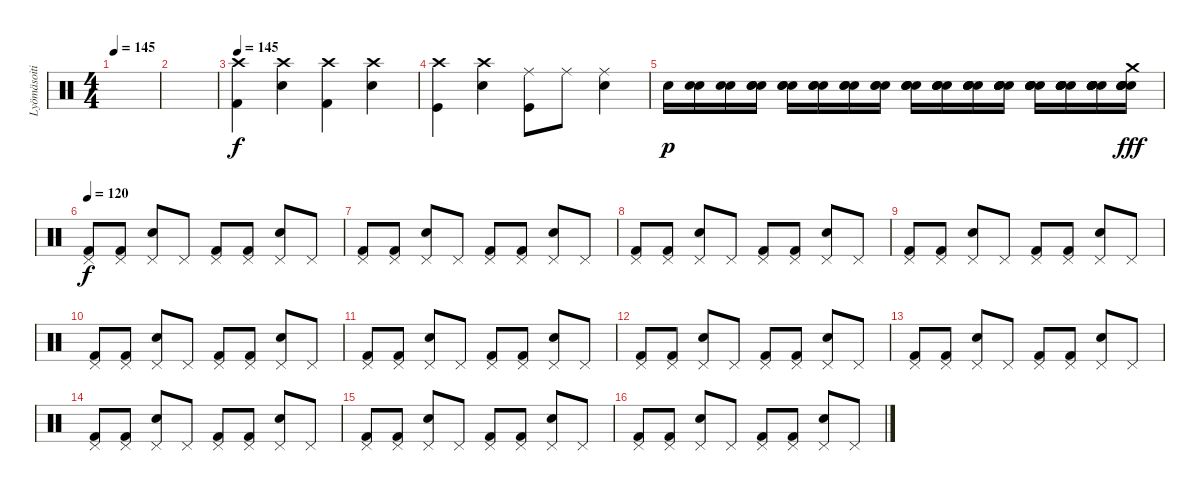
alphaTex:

\track ("Lyömäsoitin" "Lyömäsoiti") {instrument percussion}
\staff {score}
\articulation defaults
\ts (4 4)
\tempo 145
\clef neutral
\ks c
|
|
\tempo 145
("Crash high (hit)" "Kick (hit) 2").4 ("Crash high (hit)" "Snare (hit) 2").4 ("Crash high (hit)" "Kick (hit) 2").4 ("Crash high (hit)" "Snare (hit) 2").4 |
("Crash high (hit)" "Kick (hit)").4 ("Crash high (hit)" "Snare (hit) 2").4 ("Ride (middle)" "Kick (hit)").8 "Ride (middle)".8 ("Ride (middle)" "Snare (hit) 2").4 |
"Snare (hit) 2".16{dy p} ("Snare (hit) 2" "Snare (hit) 2").16 ("Snare (hit) 2" "Snare (hit) 2").16 ("Snare (hit) 2" "Snare (hit) 2" "Snare (hit) 2").16 ("Snare (hit) 2" "Snare (hit) 2" "Snare (hit) 2").16 ("Snare (hit) 2" "Snare (hit) 2" "Snare (hit) 2").16 ("Snare (hit) 2" "Snare (hit) 2" "Snare (hit) 2").16 ("Snare (hit) 2" "Snare (hit) 2" "Snare (hit) 2").16 ("Snare (hit) 2" "Snare (hit) 2" "Snare (hit) 2" "Snare (hit) 2").16 ("Snare (hit) 2" "Snare (hit) 2" "Snare (hit) 2" "Snare (hit) 2").16 ("Snare (hit) 2" "Snare (hit) 2" "Snare (hit) 2" "Snare (hit) 2" "Snare (hit) 2").16 ("Snare (hit) 2" "Snare (hit) 2" "Snare (hit) 2" "Snare (hit) 2" "Snare (hit) 2").16 ("Snare (hit) 2" "Snare (hit) 2" "Snare (hit) 2" "Snare (hit) 2" "Snare (hit) 2").16 ("Snare (hit) 2" "Snare (hit) 2" "Snare (hit) 2" "Snare (hit) 2" "Snare (hit) 2" "Snare (hit) 2").16 ("Snare (hit) 2" "Snare (hit) 2" "Snare (hit) 2" "Snare (hit) 2" "Snare (hit) 2" "Snare (hit) 2").16 ("Snare (hit) 2" "Snare (hit) 2" "Snare (hit) 2" "Snare (hit) 2" "Snare (hit) 2" "Crash medium (hit)").16{dy fff} |
\tempo 120
("Pedal Hi-Hat (hit)" "Kick (hit) 2").8{dy f} ("Pedal Hi-Hat (hit)" "Kick (hit) 2").8 ("Pedal Hi-Hat (hit)" "Snare (hit) 2").8 "Pedal Hi-Hat (hit)".8 ("Pedal Hi-Hat (hit)" "Kick (hit) 2").8 ("Pedal Hi-Hat (hit)" "Kick (hit) 2").8 ("Pedal Hi-Hat (hit)" "Snare (hit) 2").8 "Pedal Hi-Hat (hit)".8 |
("Pedal Hi-Hat (hit)" "Kick (hit) 2").8 ("Pedal Hi-Hat (hit)" "Kick (hit) 2").8 ("Pedal Hi-Hat (hit)" "Snare (hit) 2").8 "Pedal Hi-Hat (hit)".8 ("Pedal Hi-Hat (hit)" "Kick (hit) 2").8 ("Pedal Hi-Hat (hit)" "Kick (hit) 2").8 ("Pedal Hi-Hat (hit)" "Snare (hit) 2").8 "Pedal Hi-Hat (hit)".8 |
("Pedal Hi-Hat (hit)" "Kick (hit) 2").8 ("Pedal Hi-Hat (hit)" "Kick (hit) 2").8 ("Pedal Hi-Hat (hit)" "Snare (hit) 2").8 "Pedal Hi-Hat (hit)".8 ("Pedal Hi-Hat (hit)" "Kick (hit) 2").8 ("Pedal Hi-Hat (hit)" "Kick (hit) 2").8 ("Pedal Hi-Hat (hit)" "Snare (hit) 2").8 "Pedal Hi-Hat (hit)".8 |
("Pedal Hi-Hat (hit)" "Kick (hit) 2").8 ("Pedal Hi-Hat (hit)" "Kick (hit) 2").8 ("Pedal Hi-Hat (hit)" "Snare (hit) 2").8 "Pedal Hi-Hat (hit)".8 ("Pedal Hi-Hat (hit)" "Kick (hit) 2").8 ("Pedal Hi-Hat (hit)" "Kick (hit) 2").8 ("Pedal Hi-Hat (hit)" "Snare (hit) 2").8 "Pedal Hi-Hat (hit)".8 |
("Pedal Hi-Hat (hit)" "Kick (hit) 2").8 ("Pedal Hi-Hat (hit)" "Kick (hit) 2").8 ("Pedal Hi-Hat (hit)" "Snare (hit) 2").8 "Pedal Hi-Hat (hit)".8 ("Pedal Hi-Hat (hit)" "Kick (hit) 2").8 ("Pedal Hi-Hat (hit)" "Kick (hit) 2").8 ("Pedal Hi-Hat (hit)" "Snare (hit) 2").8 "Pedal Hi-Hat (hit)".8 |
("Pedal Hi-Hat (hit)" "Kick (hit) 2").8 ("Pedal Hi-Hat (hit)" "Kick (hit) 2").8 ("Pedal Hi-Hat (hit)" "Snare (hit) 2").8 "Pedal Hi-Hat (hit)".8 ("Pedal Hi-Hat (hit)" "Kick (hit) 2").8 ("Pedal Hi-Hat (hit)" "Kick (hit) 2").8 ("Pedal Hi-Hat (hit)" "Snare (hit) 2").8 "Pedal Hi-Hat (hit)".8 |
("Pedal Hi-Hat (hit)" "Kick (hit) 2").8 ("Pedal Hi-Hat (hit)" "Kick (hit) 2").8 ("Pedal Hi-Hat (hit)" "Snare (hit) 2").8 "Pedal Hi-Hat (hit)".8 ("Pedal Hi-Hat (hit)" "Kick (hit) 2").8 ("Pedal Hi-Hat (hit)" "Kick (hit) 2").8 ("Pedal Hi-Hat (hit)" "Snare (hit) 2").8 "Pedal Hi-Hat (hit)".8 |
("Pedal Hi-Hat (hit)" "Kick (hit) 2").8 ("Pedal Hi-Hat (hit)" "Kick (hit) 2").8 ("Pedal Hi-Hat (hit)" "Snare (hit) 2").8 "Pedal Hi-Hat (hit)".8 ("Pedal Hi-Hat (hit)" "Kick (hit) 2").8 ("Pedal Hi-Hat (hit)" "Kick (hit) 2").8 ("Pedal Hi-Hat (hit)" "Snare (hit) 2").8 "Pedal Hi-Hat (hit)".8 |
("Pedal Hi-Hat (hit)" "Kick (hit) 2").8 ("Pedal Hi-Hat (hit)" "Kick (hit) 2").8 ("Pedal Hi-Hat (hit)" "Snare (hit) 2").8 "Pedal Hi-Hat (hit)".8 ("Pedal Hi-Hat (hit)" "Kick (hit) 2").8 ("Pedal Hi-Hat (hit)" "Kick (hit) 2").8 ("Pedal Hi-Hat (hit)" "Snare (hit) 2").8 "Pedal Hi-Hat (hit)".8 |
("Pedal Hi-Hat (hit)" "Kick (hit) 2").8 ("Pedal Hi-Hat (hit)" "Kick (hit) 2").8 ("Pedal Hi-Hat (hit)" "Snare (hit) 2").8 "Pedal Hi-Hat (hit)".8 ("Pedal Hi-Hat (hit)" "Kick (hit) 2").8 ("Pedal Hi-Hat (hit)" "Kick (hit) 2").8 ("Pedal Hi-Hat (hit)" "Snare (hit) 2").8 "Pedal Hi-Hat (hit)".8 |
("Pedal Hi-Hat (hit)" "Kick (hit) 2").8 ("Pedal Hi-Hat (hit)" "Kick (hit) 2").8 ("Pedal Hi-Hat (hit)" "Snare (hit) 2").8 "Pedal Hi-Hat (hit)".8 ("Pedal Hi-Hat (hit)" "Kick (hit) 2").8 ("Pedal Hi-Hat (hit)" "Kick (hit) 2").8 ("Pedal Hi-Hat (hit)" "Snare (hit) 2").8 "Pedal Hi-Hat (hit)".8
